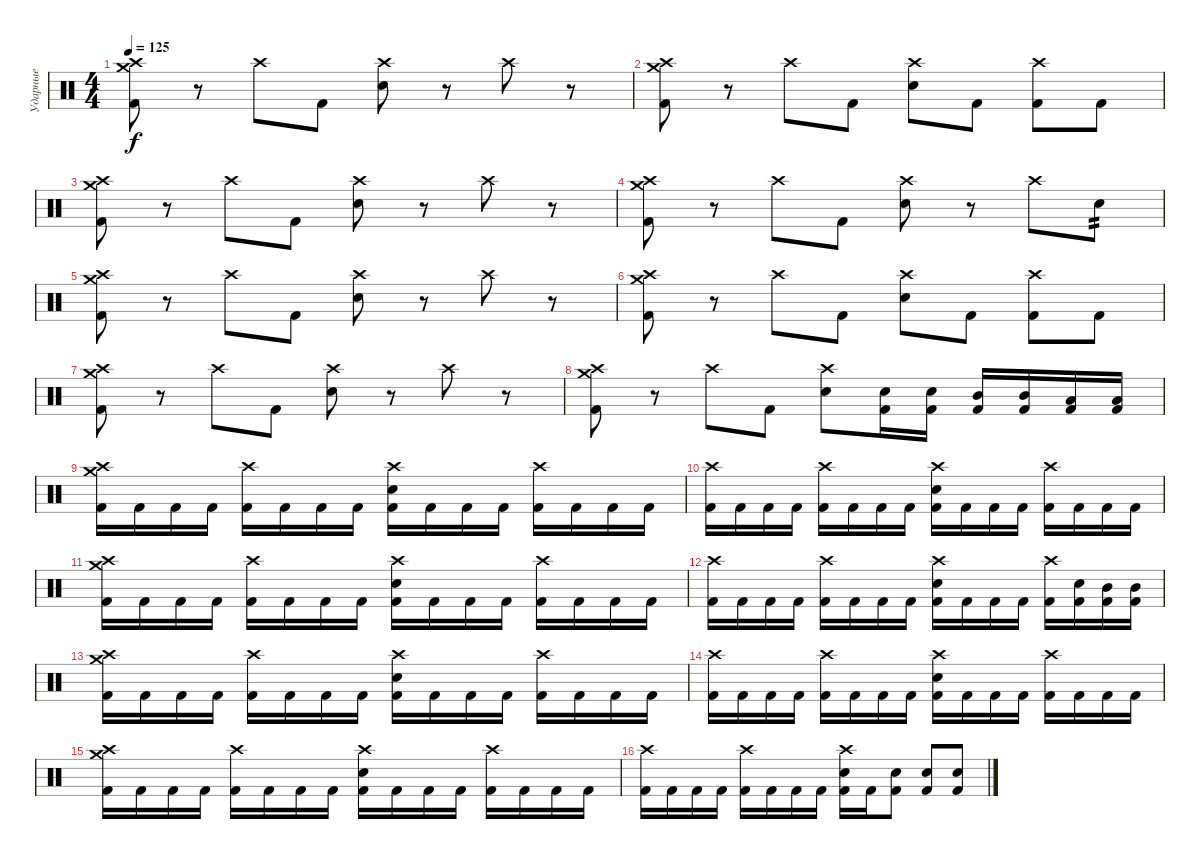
\track ("Ударные" "Ударные") {instrument percussion}
\staff {score}
\articulation defaults
\ts (4 4)
\tempo 125
\clef neutral
\ks c
("Crash high (hit)" "Crash medium (hit)" "Kick (hit) 2").8{dy f} r.8 "Crash high (hit)".8 "Kick (hit) 2".8 ("Crash high (hit)" "Electric Snare (hit)").8 r.8 "Crash high (hit)".8 r.8 |
("Crash high (hit)" "Crash medium (hit)" "Kick (hit) 2").8 r.8 "Crash high (hit)".8 "Kick (hit) 2".8 ("Crash high (hit)" "Electric Snare (hit)").8 "Kick (hit) 2".8 ("Crash high (hit)" "Kick (hit) 2").8 "Kick (hit) 2".8 |
("Crash high (hit)" "Crash medium (hit)" "Kick (hit) 2").8 r.8 "Crash high (hit)".8 "Kick (hit) 2".8 ("Crash high (hit)" "Electric Snare (hit)").8 r.8 "Crash high (hit)".8 r.8 |
("Crash high (hit)" "Crash medium (hit)" "Kick (hit) 2").8 r.8 "Crash high (hit)".8 "Kick (hit) 2".8 ("Crash high (hit)" "Electric Snare (hit)").8 r.8 "Crash high (hit)".8 "Electric Snare (hit)".8{tp 2} |
("Crash high (hit)" "Crash medium (hit)" "Kick (hit) 2").8 r.8 "Crash high (hit)".8 "Kick (hit) 2".8 ("Crash high (hit)" "Electric Snare (hit)").8 r.8 "Crash high (hit)".8 r.8 |
("Crash high (hit)" "Crash medium (hit)" "Kick (hit) 2").8 r.8 "Crash high (hit)".8 "Kick (hit) 2".8 ("Crash high (hit)" "Electric Snare (hit)").8 "Kick (hit) 2".8 ("Crash high (hit)" "Kick (hit) 2").8 "Kick (hit) 2".8 |
("Crash high (hit)" "Crash medium (hit)" "Kick (hit) 2").8 r.8 "Crash high (hit)".8 "Kick (hit) 2".8 ("Crash high (hit)" "Electric Snare (hit)").8 r.8 "Crash high (hit)".8 r.8 |
("Crash high (hit)" "Crash medium (hit)" "Kick (hit) 2").8 r.8 "Crash high (hit)".8 "Kick (hit) 2".8 ("Crash high (hit)" "Electric Snare (hit)").8 ("Electric Snare (hit)" "Kick (hit) 2").16 ("Electric Snare (hit)" "Kick (hit) 2").16 ("Mid Tom (hit)" "Kick (hit) 2").16 ("Mid Tom (hit)" "Kick (hit) 2").16 ("Low Tom (hit)" "Kick (hit) 2").16 ("Low Tom (hit)" "Kick (hit) 2").16 |
("Crash medium (hit)" "Crash high (hit)" "Kick (hit) 2").16 "Kick (hit) 2".16 "Kick (hit) 2".16 "Kick (hit) 2".16 ("Crash high (hit)" "Kick (hit) 2").16 "Kick (hit) 2".16 "Kick (hit) 2".16 "Kick (hit) 2".16 ("Crash high (hit)" "Electric Snare (hit)" "Kick (hit) 2").16 "Kick (hit) 2".16 "Kick (hit) 2".16 "Kick (hit) 2".16 ("Crash high (hit)" "Kick (hit) 2").16 "Kick (hit) 2".16 "Kick (hit) 2".16 "Kick (hit) 2".16 |
("Crash high (hit)" "Kick (hit) 2").16 "Kick (hit) 2".16 "Kick (hit) 2".16 "Kick (hit) 2".16 ("Crash high (hit)" "Kick (hit) 2").16 "Kick (hit) 2".16 "Kick (hit) 2".16 "Kick (hit) 2".16 ("Crash high (hit)" "Electric Snare (hit)" "Kick (hit) 2").16 "Kick (hit) 2".16 "Kick (hit) 2".16 "Kick (hit) 2".16 ("Crash high (hit)" "Kick (hit) 2").16 "Kick (hit) 2".16 "Kick (hit) 2".16 "Kick (hit) 2".16 |
("Crash medium (hit)" "Crash high (hit)" "Kick (hit) 2").16 "Kick (hit) 2".16 "Kick (hit) 2".16 "Kick (hit) 2".16 ("Crash high (hit)" "Kick (hit) 2").16 "Kick (hit) 2".16 "Kick (hit) 2".16 "Kick (hit) 2".16 ("Crash high (hit)" "Electric Snare (hit)" "Kick (hit) 2").16 "Kick (hit) 2".16 "Kick (hit) 2".16 "Kick (hit) 2".16 ("Crash high (hit)" "Kick (hit) 2").16 "Kick (hit) 2".16 "Kick (hit) 2".16 "Kick (hit) 2".16 |
("Crash high (hit)" "Kick (hit) 2").16 "Kick (hit) 2".16 "Kick (hit) 2".16 "Kick (hit) 2".16 ("Crash high (hit)" "Kick (hit) 2").16 "Kick (hit) 2".16 "Kick (hit) 2".16 "Kick (hit) 2".16 ("Crash high (hit)" "Electric Snare (hit)" "Kick (hit) 2").16 "Kick (hit) 2".16 "Kick (hit) 2".16 "Kick (hit) 2".16 ("Crash high (hit)" "Kick (hit) 2").16 ("Electric Snare (hit)" "Kick (hit) 2").16 ("Mid Tom (hit)" "Kick (hit) 2").16 ("Mid Tom (hit)" "Kick (hit) 2").16 |
("Crash medium (hit)" "Crash high (hit)" "Kick (hit) 2").16 "Kick (hit) 2".16 "Kick (hit) 2".16 "Kick (hit) 2".16 ("Crash high (hit)" "Kick (hit) 2").16 "Kick (hit) 2".16 "Kick (hit) 2".16 "Kick (hit) 2".16 ("Crash high (hit)" "Electric Snare (hit)" "Kick (hit) 2").16 "Kick (hit) 2".16 "Kick (hit) 2".16 "Kick (hit) 2".16 ("Crash high (hit)" "Kick (hit) 2").16 "Kick (hit) 2".16 "Kick (hit) 2".16 "Kick (hit) 2".16 |
("Crash high (hit)" "Kick (hit) 2").16 "Kick (hit) 2".16 "Kick (hit) 2".16 "Kick (hit) 2".16 ("Crash high (hit)" "Kick (hit) 2").16 "Kick (hit) 2".16 "Kick (hit) 2".16 "Kick (hit) 2".16 ("Crash high (hit)" "Electric Snare (hit)" "Kick (hit) 2").16 "Kick (hit) 2".16 "Kick (hit) 2".16 "Kick (hit) 2".16 ("Crash high (hit)" "Kick (hit) 2").16 "Kick (hit) 2".16 "Kick (hit) 2".16 "Kick (hit) 2".16 |
("Crash medium (hit)" "Crash high (hit)" "Kick (hit) 2").16 "Kick (hit) 2".16 "Kick (hit) 2".16 "Kick (hit) 2".16 ("Crash high (hit)" "Kick (hit) 2").16 "Kick (hit) 2".16 "Kick (hit) 2".16 "Kick (hit) 2".16 ("Crash high (hit)" "Electric Snare (hit)" "Kick (hit) 2").16 "Kick (hit) 2".16 "Kick (hit) 2".16 "Kick (hit) 2".16 ("Crash high (hit)" "Kick (hit) 2").16 "Kick (hit) 2".16 "Kick (hit) 2".16 "Kick (hit) 2".16 |
("Crash high (hit)" "Kick (hit) 2").16 "Kick (hit) 2".16 "Kick (hit) 2".16 "Kick (hit) 2".16 ("Crash high (hit)" "Kick (hit) 2").16 "Kick (hit) 2".16 "Kick (hit) 2".16 "Kick (hit) 2".16 ("Crash high (hit)" "Electric Snare (hit)" "Kick (hit) 2").16 "Kick (hit) 2".16 ("Electric Snare (hit)" "Kick (hit) 2").8 ("Electric Snare (hit)" "Kick (hit) 2").8 ("Electric Snare (hit)" "Kick (hit) 2").8
